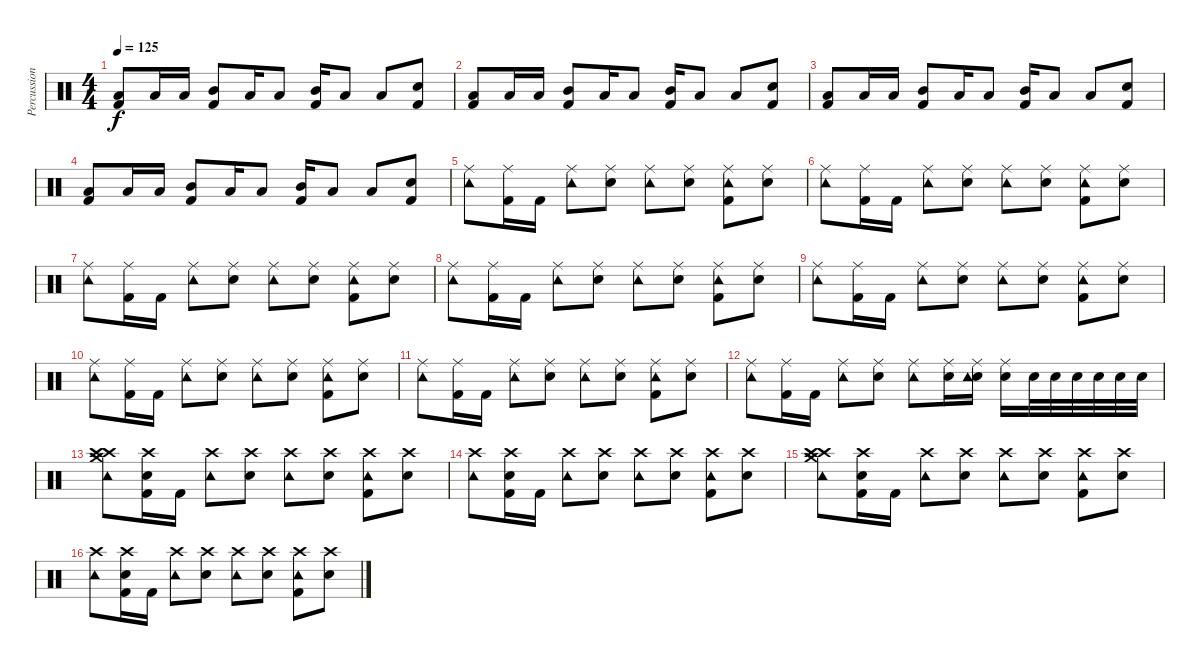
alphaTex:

\track ("Percussioni" "Percussion") {instrument percussion}
\staff {score}
\articulation defaults
\ts (4 4)
\tempo 125
\clef neutral
\ks c
("Low Floor Tom (hit)" "Kick (hit) 2").8{dy f} "Low Floor Tom (hit)".16 "Low Floor Tom (hit)".16 ("Mid Tom (hit)" "Kick (hit) 2").8 "Low Floor Tom (hit)".16 "Low Floor Tom (hit)".8 ("Mid Tom (hit)" "Kick (hit) 2").16 "Low Floor Tom (hit)".8 "Low Floor Tom (hit)".8 ("Snare (hit) 2" "Kick (hit) 2").8 |
("Low Floor Tom (hit)" "Kick (hit) 2").8 "Low Floor Tom (hit)".16 "Low Floor Tom (hit)".16 ("Mid Tom (hit)" "Kick (hit) 2").8 "Low Floor Tom (hit)".16 "Low Floor Tom (hit)".8 ("Mid Tom (hit)" "Kick (hit) 2").16 "Low Floor Tom (hit)".8 "Low Floor Tom (hit)".8 ("Snare (hit) 2" "Kick (hit) 2").8 |
("Low Floor Tom (hit)" "Kick (hit) 2").8 "Low Floor Tom (hit)".16 "Low Floor Tom (hit)".16 ("Mid Tom (hit)" "Kick (hit) 2").8 "Low Floor Tom (hit)".16 "Low Floor Tom (hit)".8 ("Mid Tom (hit)" "Kick (hit) 2").16 "Low Floor Tom (hit)".8 "Low Floor Tom (hit)".8 ("Snare (hit) 2" "Kick (hit) 2").8 |
("Low Floor Tom (hit)" "Kick (hit) 2").8 "Low Floor Tom (hit)".16 "Low Floor Tom (hit)".16 ("Mid Tom (hit)" "Kick (hit) 2").8 "Low Floor Tom (hit)".16 "Low Floor Tom (hit)".8 ("Mid Tom (hit)" "Kick (hit) 2").16 "Low Floor Tom (hit)".8 "Low Floor Tom (hit)".8 ("Snare (hit) 2" "Kick (hit) 2").8 |
("Ride (middle)" "Tambourine (hit)").8 ("Ride (middle)" "Kick (hit) 2").16 "Kick (hit) 2".16 ("Ride (middle)" "Tambourine (hit)").8 ("Ride (middle)" "Snare (hit) 2").8 ("Ride (middle)" "Tambourine (hit)").8 ("Ride (middle)" "Snare (hit) 2").8 ("Ride (middle)" "Kick (hit) 2" "Tambourine (hit)").8 ("Ride (middle)" "Snare (hit) 2").8 |
("Ride (middle)" "Tambourine (hit)").8 ("Ride (middle)" "Kick (hit) 2").16 "Kick (hit) 2".16 ("Ride (middle)" "Tambourine (hit)").8 ("Ride (middle)" "Snare (hit) 2").8 ("Ride (middle)" "Tambourine (hit)").8 ("Ride (middle)" "Snare (hit) 2").8 ("Ride (middle)" "Kick (hit) 2" "Tambourine (hit)").8 ("Ride (middle)" "Snare (hit) 2").8 |
("Ride (middle)" "Tambourine (hit)").8 ("Ride (middle)" "Kick (hit) 2").16 "Kick (hit) 2".16 ("Ride (middle)" "Tambourine (hit)").8 ("Ride (middle)" "Snare (hit) 2").8 ("Ride (middle)" "Tambourine (hit)").8 ("Ride (middle)" "Snare (hit) 2").8 ("Ride (middle)" "Kick (hit) 2" "Tambourine (hit)").8 ("Ride (middle)" "Snare (hit) 2").8 |
("Ride (middle)" "Tambourine (hit)").8 ("Ride (middle)" "Kick (hit) 2").16 "Kick (hit) 2".16 ("Ride (middle)" "Tambourine (hit)").8 ("Ride (middle)" "Snare (hit) 2").8 ("Ride (middle)" "Tambourine (hit)").8 ("Ride (middle)" "Snare (hit) 2").8 ("Ride (middle)" "Kick (hit) 2" "Tambourine (hit)").8 ("Ride (middle)" "Snare (hit) 2").8 |
("Ride (middle)" "Tambourine (hit)").8 ("Ride (middle)" "Kick (hit) 2").16 "Kick (hit) 2".16 ("Ride (middle)" "Tambourine (hit)").8 ("Ride (middle)" "Snare (hit) 2").8 ("Ride (middle)" "Tambourine (hit)").8 ("Ride (middle)" "Snare (hit) 2").8 ("Ride (middle)" "Kick (hit) 2" "Tambourine (hit)").8 ("Ride (middle)" "Snare (hit) 2").8 |
("Ride (middle)" "Tambourine (hit)").8 ("Ride (middle)" "Kick (hit) 2").16 "Kick (hit) 2".16 ("Ride (middle)" "Tambourine (hit)").8 ("Ride (middle)" "Snare (hit) 2").8 ("Ride (middle)" "Tambourine (hit)").8 ("Ride (middle)" "Snare (hit) 2").8 ("Ride (middle)" "Kick (hit) 2" "Tambourine (hit)").8 ("Ride (middle)" "Snare (hit) 2").8 |
("Ride (middle)" "Tambourine (hit)").8 ("Ride (middle)" "Kick (hit) 2").16 "Kick (hit) 2".16 ("Ride (middle)" "Tambourine (hit)").8 ("Ride (middle)" "Snare (hit) 2").8 ("Ride (middle)" "Tambourine (hit)").8 ("Ride (middle)" "Snare (hit) 2").8 ("Ride (middle)" "Kick (hit) 2" "Tambourine (hit)").8 ("Ride (middle)" "Snare (hit) 2").8 |
("Ride (middle)" "Tambourine (hit)").8 ("Ride (middle)" "Kick (hit) 2").16 "Kick (hit) 2".16 ("Ride (middle)" "Tambourine (hit)").8 ("Ride (middle)" "Snare (hit) 2").8 ("Ride (middle)" "Tambourine (hit)").8 ("Ride (middle)" "Snare (hit) 2").16 ("Ride (middle)" "Snare (hit) 2" "Tambourine (hit)").16 ("Ride (middle)" "Snare (hit) 2").16 "Snare (hit) 2".32 "Snare (hit) 2".32 "Snare (hit) 2".32 "Snare (hit) 2".32 "Snare (hit) 2".32 "Snare (hit) 2".32 |
("Crash high (hit)" "Crash high (hit)" "Crash medium (hit)" "Tambourine (hit)").8 ("Crash high (hit)" "Kick (hit) 2" "Snare (hit) 2").16 "Kick (hit) 2".16 ("Crash high (hit)" "Tambourine (hit)").8 ("Crash high (hit)" "Snare (hit) 2").8 ("Crash high (hit)" "Tambourine (hit)").8 ("Crash high (hit)" "Snare (hit) 2").8 ("Crash high (hit)" "Kick (hit) 2" "Tambourine (hit)").8 ("Crash high (hit)" "Snare (hit) 2").8 |
("Crash high (hit)" "Tambourine (hit)").8 ("Crash high (hit)" "Kick (hit) 2" "Snare (hit) 2").16 "Kick (hit) 2".16 ("Crash high (hit)" "Tambourine (hit)").8 ("Crash high (hit)" "Snare (hit) 2").8 ("Crash high (hit)" "Tambourine (hit)").8 ("Crash high (hit)" "Snare (hit) 2").8 ("Crash high (hit)" "Kick (hit) 2" "Tambourine (hit)").8 ("Crash high (hit)" "Snare (hit) 2").8 |
("Crash high (hit)" "Crash high (hit)" "Crash medium (hit)" "Tambourine (hit)").8 ("Crash high (hit)" "Kick (hit) 2" "Snare (hit) 2").16 "Kick (hit) 2".16 ("Crash high (hit)" "Tambourine (hit)").8 ("Crash high (hit)" "Snare (hit) 2").8 ("Crash high (hit)" "Tambourine (hit)").8 ("Crash high (hit)" "Snare (hit) 2").8 ("Crash high (hit)" "Kick (hit) 2" "Tambourine (hit)").8 ("Crash high (hit)" "Snare (hit) 2").8 |
("Crash high (hit)" "Tambourine (hit)").8 ("Crash high (hit)" "Kick (hit) 2" "Snare (hit) 2").16 "Kick (hit) 2".16 ("Crash high (hit)" "Tambourine (hit)").8 ("Crash high (hit)" "Snare (hit) 2").8 ("Crash high (hit)" "Tambourine (hit)").8 ("Crash high (hit)" "Snare (hit) 2").8 ("Crash high (hit)" "Kick (hit) 2" "Tambourine (hit)").8 ("Crash high (hit)" "Snare (hit) 2").8
